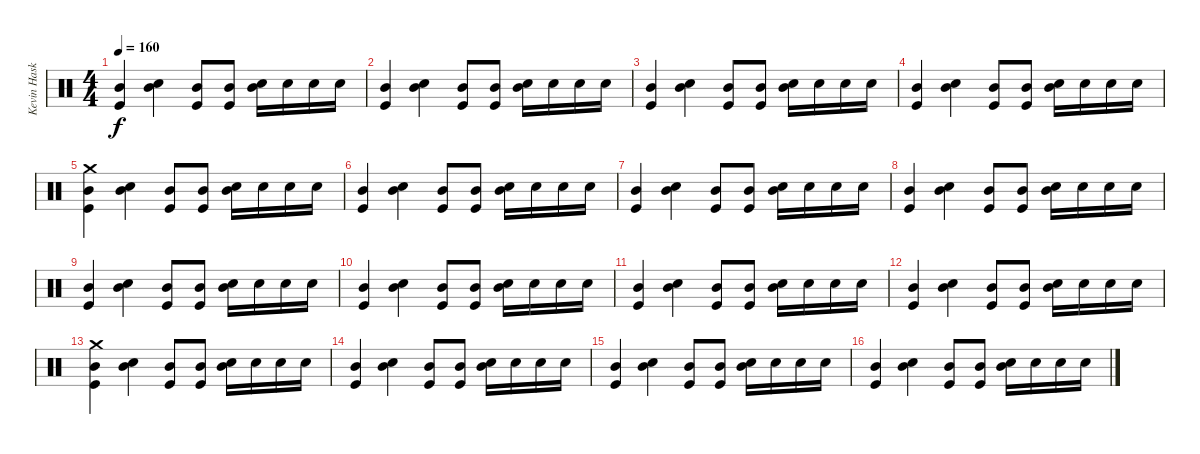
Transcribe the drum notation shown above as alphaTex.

\track ("Kevin Haskins" "Kevin Hask") {instrument percussion}
\staff {score}
\articulation defaults
\ts (4 4)
\tempo 160
\clef neutral
\ks c
("Mid Tom (hit)" "Kick (hit)").4{dy f} ("Snare (hit) 2" "Mid Tom (hit)").4 ("Mid Tom (hit)" "Kick (hit)").8 ("Mid Tom (hit)" "Kick (hit)").8 ("Snare (hit) 2" "Mid Tom (hit)").16 "Snare (hit) 2".16 "Snare (hit) 2".16 "Snare (hit) 2".16 |
("Mid Tom (hit)" "Kick (hit)").4 ("Snare (hit) 2" "Mid Tom (hit)").4 ("Mid Tom (hit)" "Kick (hit)").8 ("Mid Tom (hit)" "Kick (hit)").8 ("Snare (hit) 2" "Mid Tom (hit)").16 "Snare (hit) 2".16 "Snare (hit) 2".16 "Snare (hit) 2".16 |
("Mid Tom (hit)" "Kick (hit)").4 ("Snare (hit) 2" "Mid Tom (hit)").4 ("Mid Tom (hit)" "Kick (hit)").8 ("Mid Tom (hit)" "Kick (hit)").8 ("Snare (hit) 2" "Mid Tom (hit)").16 "Snare (hit) 2".16 "Snare (hit) 2".16 "Snare (hit) 2".16 |
("Mid Tom (hit)" "Kick (hit)").4 ("Snare (hit) 2" "Mid Tom (hit)").4 ("Mid Tom (hit)" "Kick (hit)").8 ("Mid Tom (hit)" "Kick (hit)").8 ("Snare (hit) 2" "Mid Tom (hit)").16 "Snare (hit) 2".16 "Snare (hit) 2".16 "Snare (hit) 2".16 |
("Crash medium (hit)" "Mid Tom (hit)" "Kick (hit)").4 ("Snare (hit) 2" "Mid Tom (hit)").4 ("Mid Tom (hit)" "Kick (hit)").8 ("Mid Tom (hit)" "Kick (hit)").8 ("Snare (hit) 2" "Mid Tom (hit)").16 "Snare (hit) 2".16 "Snare (hit) 2".16 "Snare (hit) 2".16 |
("Mid Tom (hit)" "Kick (hit)").4 ("Snare (hit) 2" "Mid Tom (hit)").4 ("Mid Tom (hit)" "Kick (hit)").8 ("Mid Tom (hit)" "Kick (hit)").8 ("Snare (hit) 2" "Mid Tom (hit)").16 "Snare (hit) 2".16 "Snare (hit) 2".16 "Snare (hit) 2".16 |
("Mid Tom (hit)" "Kick (hit)").4 ("Snare (hit) 2" "Mid Tom (hit)").4 ("Mid Tom (hit)" "Kick (hit)").8 ("Mid Tom (hit)" "Kick (hit)").8 ("Snare (hit) 2" "Mid Tom (hit)").16 "Snare (hit) 2".16 "Snare (hit) 2".16 "Snare (hit) 2".16 |
("Mid Tom (hit)" "Kick (hit)").4 ("Snare (hit) 2" "Mid Tom (hit)").4 ("Mid Tom (hit)" "Kick (hit)").8 ("Mid Tom (hit)" "Kick (hit)").8 ("Snare (hit) 2" "Mid Tom (hit)").16 "Snare (hit) 2".16 "Snare (hit) 2".16 "Snare (hit) 2".16 |
("Mid Tom (hit)" "Kick (hit)").4 ("Snare (hit) 2" "Mid Tom (hit)").4 ("Mid Tom (hit)" "Kick (hit)").8 ("Mid Tom (hit)" "Kick (hit)").8 ("Snare (hit) 2" "Mid Tom (hit)").16 "Snare (hit) 2".16 "Snare (hit) 2".16 "Snare (hit) 2".16 |
("Mid Tom (hit)" "Kick (hit)").4 ("Snare (hit) 2" "Mid Tom (hit)").4 ("Mid Tom (hit)" "Kick (hit)").8 ("Mid Tom (hit)" "Kick (hit)").8 ("Snare (hit) 2" "Mid Tom (hit)").16 "Snare (hit) 2".16 "Snare (hit) 2".16 "Snare (hit) 2".16 |
("Mid Tom (hit)" "Kick (hit)").4 ("Snare (hit) 2" "Mid Tom (hit)").4 ("Mid Tom (hit)" "Kick (hit)").8 ("Mid Tom (hit)" "Kick (hit)").8 ("Snare (hit) 2" "Mid Tom (hit)").16 "Snare (hit) 2".16 "Snare (hit) 2".16 "Snare (hit) 2".16 |
("Mid Tom (hit)" "Kick (hit)").4 ("Snare (hit) 2" "Mid Tom (hit)").4 ("Mid Tom (hit)" "Kick (hit)").8 ("Mid Tom (hit)" "Kick (hit)").8 ("Snare (hit) 2" "Mid Tom (hit)").16 "Snare (hit) 2".16 "Snare (hit) 2".16 "Snare (hit) 2".16 |
("Crash medium (hit)" "Mid Tom (hit)" "Kick (hit)").4 ("Snare (hit) 2" "Mid Tom (hit)").4 ("Mid Tom (hit)" "Kick (hit)").8 ("Mid Tom (hit)" "Kick (hit)").8 ("Snare (hit) 2" "Mid Tom (hit)").16 "Snare (hit) 2".16 "Snare (hit) 2".16 "Snare (hit) 2".16 |
("Mid Tom (hit)" "Kick (hit)").4 ("Snare (hit) 2" "Mid Tom (hit)").4 ("Mid Tom (hit)" "Kick (hit)").8 ("Mid Tom (hit)" "Kick (hit)").8 ("Snare (hit) 2" "Mid Tom (hit)").16 "Snare (hit) 2".16 "Snare (hit) 2".16 "Snare (hit) 2".16 |
("Mid Tom (hit)" "Kick (hit)").4 ("Snare (hit) 2" "Mid Tom (hit)").4 ("Mid Tom (hit)" "Kick (hit)").8 ("Mid Tom (hit)" "Kick (hit)").8 ("Snare (hit) 2" "Mid Tom (hit)").16 "Snare (hit) 2".16 "Snare (hit) 2".16 "Snare (hit) 2".16 |
("Mid Tom (hit)" "Kick (hit)").4 ("Snare (hit) 2" "Mid Tom (hit)").4 ("Mid Tom (hit)" "Kick (hit)").8 ("Mid Tom (hit)" "Kick (hit)").8 ("Snare (hit) 2" "Mid Tom (hit)").16 "Snare (hit) 2".16 "Snare (hit) 2".16 "Snare (hit) 2".16
